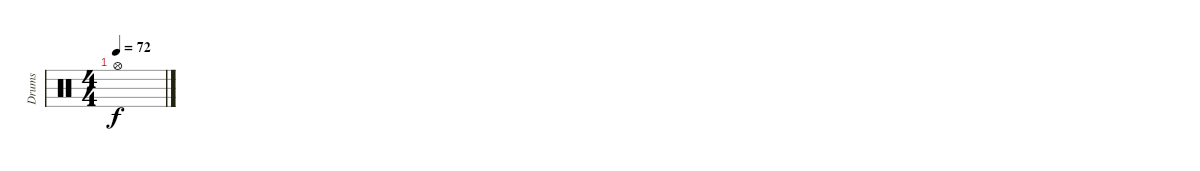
\track ("Drums" "Drums") {instrument percussion}
\staff {score}
\articulation defaults
\ts (4 4)
\tempo 72
\clef neutral
\ks c "Hi-Hat (open)".1{dy f}
